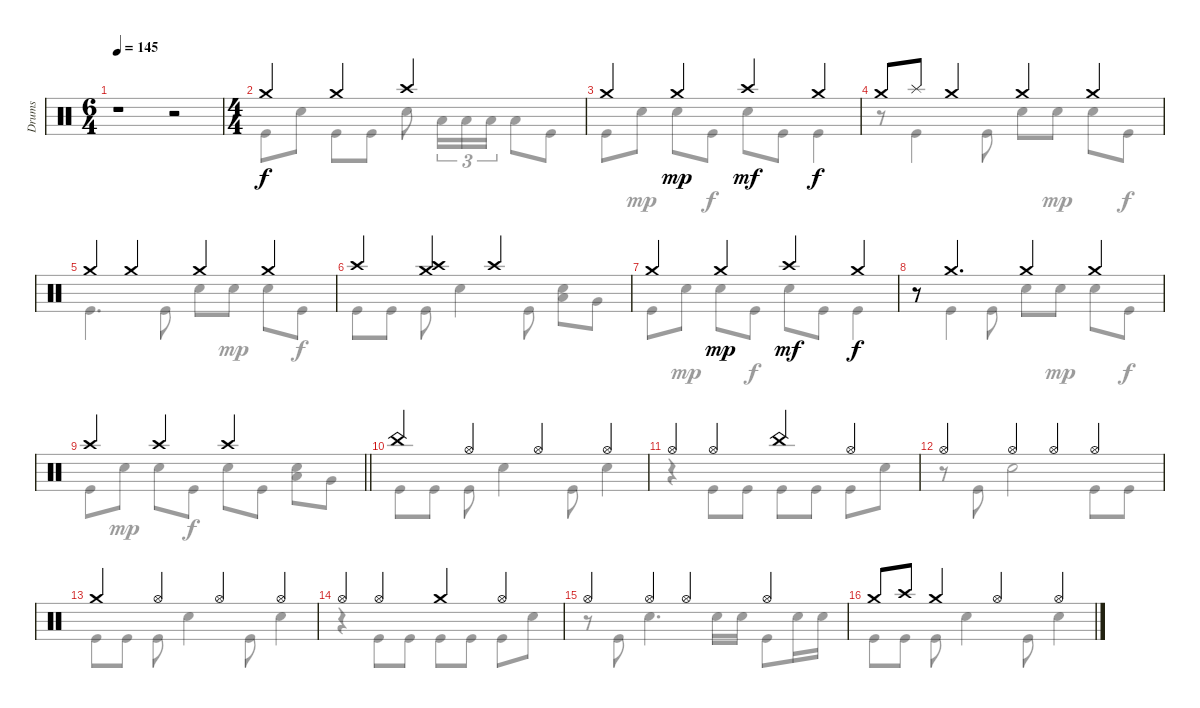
\track ("Drums" "Drums") {instrument percussion}
\staff {score}
\articulation defaults
\voice
\ts (6 4)
\tempo 145
\clef neutral
\ks c
r.1{dy f} r.2 |
\ts (4 4)
"Crash medium (hit)".4 "Crash medium (hit)".4 "Crash high (hit)".2 |
"Crash medium (hit)".4 "Crash medium (hit)".4{dy mp} "Crash high (hit)".4{dy mf} "Crash medium (hit)".4{dy f} |
"Crash medium (hit)".8 "Splash (hit)".8 "Crash medium (hit)".4 "Crash medium (hit)".4 "Crash medium (hit)".4 |
"Crash medium (hit)".4 "Crash medium (hit)".4 "Crash medium (hit)".4 "Crash medium (hit)".4 |
"Crash high (hit)".4 ("Crash high (hit)" "Crash medium (hit)").4 "Crash high (hit)".2 |
"Crash medium (hit)".4 "Crash medium (hit)".4{dy mp} "Crash high (hit)".4{dy mf} "Crash medium (hit)".4{dy f} |
r.8 "Crash medium (hit)".4{d} "Crash medium (hit)".4 "Crash medium (hit)".4 |
\barLineRight lightlight "Crash high (hit)".4 "Crash high (hit)".4 "Crash high (hit)".2
|
\section ("" "")
"China (hit)".4 "Hi-Hat (open)".4 "Hi-Hat (open)".4 "Hi-Hat (open)".4 |
"Hi-Hat (open)".4 "Hi-Hat (open)".4 "China (hit)".4 "Hi-Hat (open)".4 |
"Hi-Hat (open)".4 "Hi-Hat (open)".4 "Hi-Hat (open)".4 "Hi-Hat (open)".4 |
"Crash medium (hit)".4 "Hi-Hat (open)".4 "Hi-Hat (open)".4 "Hi-Hat (open)".4 |
"Hi-Hat (open)".4 "Hi-Hat (open)".4 "Crash medium (hit)".4 "Hi-Hat (open)".4 |
"Hi-Hat (open)".4 "Hi-Hat (open)".4 "Hi-Hat (open)".4 "Hi-Hat (open)".4 |
"Crash medium (hit)".8 "Crash high (hit)".8 "Crash medium (hit)".4 "Hi-Hat (open)".4 "Hi-Hat (open)".4
\voice
\clef neutral
\ottava regular
\simile none
\ks c
|
"Kick (hit)".8 "Snare (hit) 2".8 "Kick (hit)".8 "Kick (hit)".8 "Snare (hit) 2".8 "Low Tom (hit)".16{tu (3 2)} "Low Tom (hit)".16{tu (3 2)} "Low Tom (hit)".16{tu (3 2)} "Low Floor Tom (hit)".8 "Kick (hit)".8 |
"Kick (hit)".8 "Snare (hit) 2".8{dy mp} "Snare (hit) 2".8 "Kick (hit)".8{dy f} "Snare (hit) 2".8 "Kick (hit)".8 "Kick (hit)".4 |
r.8 "Kick (hit)".4 "Kick (hit)".8 "Snare (hit) 2".8 "Snare (hit) 2".8{dy mp} "Snare (hit) 2".8 "Kick (hit)".8{dy f} |
"Kick (hit)".4{d} "Kick (hit)".8 "Snare (hit) 2".8 "Snare (hit) 2".8{dy mp} "Snare (hit) 2".8 "Kick (hit)".8{dy f} |
"Kick (hit)".8 "Kick (hit)".8 "Kick (hit)".8 "Snare (hit) 2".4 "Kick (hit)".8 ("Snare (hit) 2" "Low Tom (hit)").8 "Very Low Tom (hit)".8 |
"Kick (hit)".8 "Snare (hit) 2".8{dy mp} "Snare (hit) 2".8 "Kick (hit)".8{dy f} "Snare (hit) 2".8 "Kick (hit)".8 "Kick (hit)".4 |
r.8 "Kick (hit)".4 "Kick (hit)".8 "Snare (hit) 2".8 "Snare (hit) 2".8{dy mp} "Snare (hit) 2".8 "Kick (hit)".8{dy f} |
\barLineRight lightlight "Kick (hit)".8 "Snare (hit) 2".8{dy mp} "Snare (hit) 2".8 "Kick (hit)".8{dy f} "Snare (hit) 2".8 "Kick (hit)".8
("Snare (hit) 2" "Low Tom (hit)").8 "Very Low Tom (hit)".8 |
"Kick (hit)".8 "Kick (hit)".8 "Kick (hit)".8 "Snare (hit) 2".4 "Kick (hit)".8 "Snare (hit) 2".4 |
r.4 "Kick (hit)".8 "Kick (hit)".8 "Kick (hit)".8 "Kick (hit)".8 "Kick (hit)".8 "Snare (hit) 2".8 |
r.8 "Kick (hit)".8 "Snare (hit) 2".2 "Kick (hit)".8 "Kick (hit)".8 |
"Kick (hit)".8 "Kick (hit)".8 "Kick (hit)".8 "Snare (hit) 2".4 "Kick (hit)".8 "Snare (hit) 2".4 |
r.4 "Kick (hit)".8 "Kick (hit)".8 "Kick (hit)".8 "Kick (hit)".8 "Kick (hit)".8 "Snare (hit) 2".8 |
r.8 "Kick (hit)".8 "Snare (hit) 2".4{d} "Snare (hit) 2".16 "Snare (hit) 2".16 "Kick (hit)".8 "Snare (hit) 2".16 "Snare (hit) 2".16 |
"Kick (hit)".8 "Kick (hit)".8 "Kick (hit)".8 "Snare (hit) 2".4 "Kick (hit)".8 "Snare (hit) 2".4
